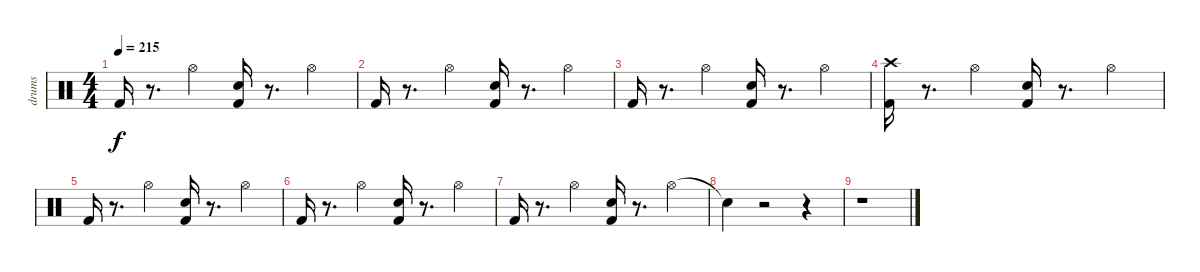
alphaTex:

\track ("drums" "drums") {instrument percussion}
\staff {score}
\articulation defaults
\ts (4 4)
\tempo 215
\clef neutral
\ks c "Kick (hit) 2".16{dy f}
r.8{d} "Hi-Hat (open)".4 ("Electric Snare (hit)" "Kick (hit) 2").16 r.8{d} "Hi-Hat (open)".4 |
"Kick (hit) 2".16 r.8{d} "Hi-Hat (open)".4 ("Electric Snare (hit)" "Kick (hit) 2").16 r.8{d} "Hi-Hat (open)".4 |
"Kick (hit) 2".16 r.8{d} "Hi-Hat (open)".4 ("Electric Snare (hit)" "Kick (hit) 2").16 r.8{d} "Hi-Hat (open)".4 |
("Crash high (hit)" "Kick (hit) 2").16 r.8{d} "Hi-Hat (open)".4 ("Electric Snare (hit)" "Kick (hit) 2").16 r.8{d} "Hi-Hat (open)".4 |
"Kick (hit) 2".16 r.8{d} "Hi-Hat (open)".4 ("Electric Snare (hit)" "Kick (hit) 2").16 r.8{d} "Hi-Hat (open)".4 |
"Kick (hit) 2".16 r.8{d} "Hi-Hat (open)".4 ("Electric Snare (hit)" "Kick (hit) 2").16 r.8{d} "Hi-Hat (open)".4 |
"Kick (hit) 2".16 r.8{d} "Hi-Hat (open)".4 ("Electric Snare (hit)" "Kick (hit) 2").16 r.8{d} "Hi-Hat (open)".4 |
"Snare (hit)"{t}.4 r.2 r.4 |
r.1
